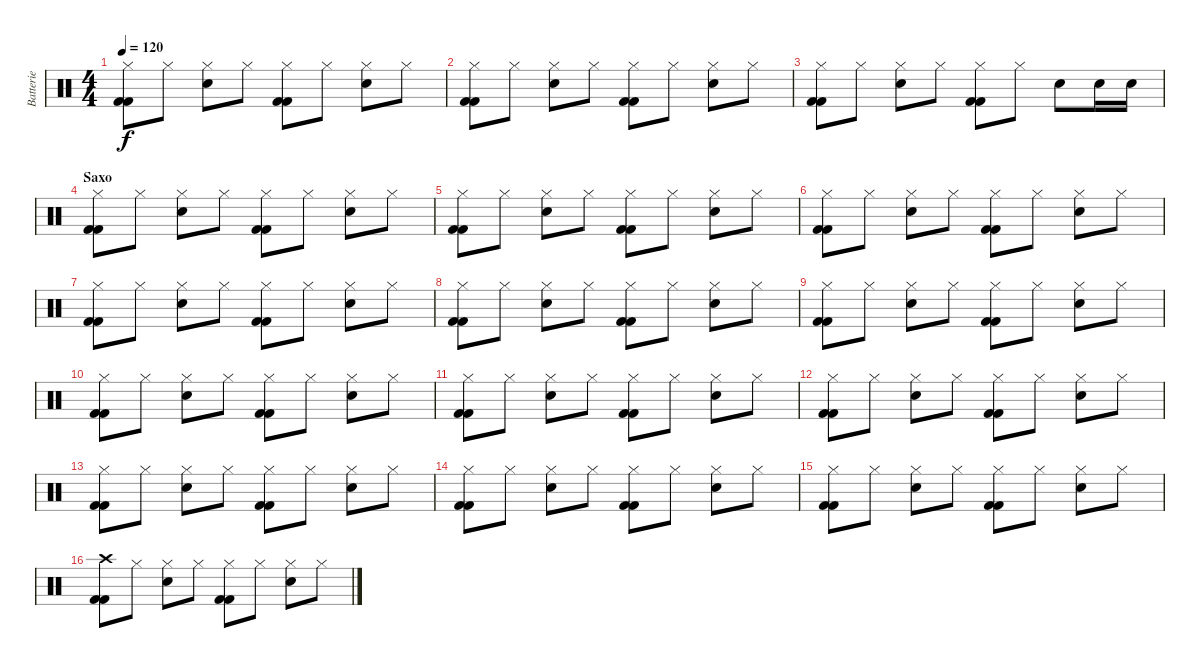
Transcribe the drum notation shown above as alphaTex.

\track ("Batterie" "Batterie") {instrument percussion}
\staff {score}
\articulation defaults
\ts (4 4)
\tempo 120
\clef neutral
\ks c
("Hi-Hat (closed)" "Kick (hit) 2" "Kick (hit) 2").8{dy f} "Hi-Hat (closed)".8 ("Hi-Hat (closed)" "Snare (hit) 2").8 "Hi-Hat (closed)".8 ("Hi-Hat (closed)" "Kick (hit) 2" "Kick (hit) 2").8 "Hi-Hat (closed)".8 ("Hi-Hat (closed)" "Snare (hit) 2").8 "Hi-Hat (closed)".8 |
("Hi-Hat (closed)" "Kick (hit) 2" "Kick (hit) 2").8 "Hi-Hat (closed)".8 ("Hi-Hat (closed)" "Snare (hit) 2").8 "Hi-Hat (closed)".8 ("Hi-Hat (closed)" "Kick (hit) 2" "Kick (hit) 2").8 "Hi-Hat (closed)".8 ("Hi-Hat (closed)" "Snare (hit) 2").8 "Hi-Hat (closed)".8 |
("Hi-Hat (closed)" "Kick (hit) 2" "Kick (hit) 2").8 "Hi-Hat (closed)".8 ("Hi-Hat (closed)" "Snare (hit) 2").8 "Hi-Hat (closed)".8 ("Hi-Hat (closed)" "Kick (hit) 2" "Kick (hit) 2").8 "Hi-Hat (closed)".8 "Snare (hit) 2".8 "Snare (hit) 2".16 "Snare (hit) 2".16 |
\section ("" "Saxo")
("Hi-Hat (closed)" "Kick (hit) 2" "Kick (hit) 2").8 "Hi-Hat (closed)".8 ("Hi-Hat (closed)" "Snare (hit) 2").8 "Hi-Hat (closed)".8 ("Hi-Hat (closed)" "Kick (hit) 2" "Kick (hit) 2").8 "Hi-Hat (closed)".8 ("Hi-Hat (closed)" "Snare (hit) 2").8 "Hi-Hat (closed)".8 |
("Hi-Hat (closed)" "Kick (hit) 2" "Kick (hit) 2").8 "Hi-Hat (closed)".8 ("Hi-Hat (closed)" "Snare (hit) 2").8 "Hi-Hat (closed)".8 ("Hi-Hat (closed)" "Kick (hit) 2" "Kick (hit) 2").8 "Hi-Hat (closed)".8 ("Hi-Hat (closed)" "Snare (hit) 2").8 "Hi-Hat (closed)".8 |
("Hi-Hat (closed)" "Kick (hit) 2" "Kick (hit) 2").8 "Hi-Hat (closed)".8 ("Hi-Hat (closed)" "Snare (hit) 2").8 "Hi-Hat (closed)".8 ("Hi-Hat (closed)" "Kick (hit) 2" "Kick (hit) 2").8 "Hi-Hat (closed)".8 ("Hi-Hat (closed)" "Snare (hit) 2").8 "Hi-Hat (closed)".8 |
("Hi-Hat (closed)" "Kick (hit) 2" "Kick (hit) 2").8 "Hi-Hat (closed)".8 ("Hi-Hat (closed)" "Snare (hit) 2").8 "Hi-Hat (closed)".8 ("Hi-Hat (closed)" "Kick (hit) 2" "Kick (hit) 2").8 "Hi-Hat (closed)".8 ("Hi-Hat (closed)" "Snare (hit) 2").8 "Hi-Hat (closed)".8 |
("Hi-Hat (closed)" "Kick (hit) 2" "Kick (hit) 2").8 "Hi-Hat (closed)".8 ("Hi-Hat (closed)" "Snare (hit) 2").8 "Hi-Hat (closed)".8 ("Hi-Hat (closed)" "Kick (hit) 2" "Kick (hit) 2").8 "Hi-Hat (closed)".8 ("Hi-Hat (closed)" "Snare (hit) 2").8 "Hi-Hat (closed)".8 |
("Hi-Hat (closed)" "Kick (hit) 2" "Kick (hit) 2").8 "Hi-Hat (closed)".8 ("Hi-Hat (closed)" "Snare (hit) 2").8 "Hi-Hat (closed)".8 ("Hi-Hat (closed)" "Kick (hit) 2" "Kick (hit) 2").8 "Hi-Hat (closed)".8 ("Hi-Hat (closed)" "Snare (hit) 2").8 "Hi-Hat (closed)".8 |
("Hi-Hat (closed)" "Kick (hit) 2" "Kick (hit) 2").8 "Hi-Hat (closed)".8 ("Hi-Hat (closed)" "Snare (hit) 2").8 "Hi-Hat (closed)".8 ("Hi-Hat (closed)" "Kick (hit) 2" "Kick (hit) 2").8 "Hi-Hat (closed)".8 ("Hi-Hat (closed)" "Snare (hit) 2").8 "Hi-Hat (closed)".8 |
("Hi-Hat (closed)" "Kick (hit) 2" "Kick (hit) 2").8 "Hi-Hat (closed)".8 ("Hi-Hat (closed)" "Snare (hit) 2").8 "Hi-Hat (closed)".8 ("Hi-Hat (closed)" "Kick (hit) 2" "Kick (hit) 2").8 "Hi-Hat (closed)".8 ("Hi-Hat (closed)" "Snare (hit) 2").8 "Hi-Hat (closed)".8 |
("Hi-Hat (closed)" "Kick (hit) 2" "Kick (hit) 2").8 "Hi-Hat (closed)".8 ("Hi-Hat (closed)" "Snare (hit) 2").8 "Hi-Hat (closed)".8 ("Hi-Hat (closed)" "Kick (hit) 2" "Kick (hit) 2").8 "Hi-Hat (closed)".8 ("Hi-Hat (closed)" "Snare (hit) 2").8 "Hi-Hat (closed)".8 |
("Hi-Hat (closed)" "Kick (hit) 2" "Kick (hit) 2").8 "Hi-Hat (closed)".8 ("Hi-Hat (closed)" "Snare (hit) 2").8 "Hi-Hat (closed)".8 ("Hi-Hat (closed)" "Kick (hit) 2" "Kick (hit) 2").8 "Hi-Hat (closed)".8 ("Hi-Hat (closed)" "Snare (hit) 2").8 "Hi-Hat (closed)".8 |
("Hi-Hat (closed)" "Kick (hit) 2" "Kick (hit) 2").8 "Hi-Hat (closed)".8 ("Hi-Hat (closed)" "Snare (hit) 2").8 "Hi-Hat (closed)".8 ("Hi-Hat (closed)" "Kick (hit) 2" "Kick (hit) 2").8 "Hi-Hat (closed)".8 ("Hi-Hat (closed)" "Snare (hit) 2").8 "Hi-Hat (closed)".8 |
("Hi-Hat (closed)" "Kick (hit) 2" "Kick (hit) 2").8 "Hi-Hat (closed)".8 ("Hi-Hat (closed)" "Snare (hit) 2").8 "Hi-Hat (closed)".8 ("Hi-Hat (closed)" "Kick (hit) 2" "Kick (hit) 2").8 "Hi-Hat (closed)".8 ("Hi-Hat (closed)" "Snare (hit) 2").8 "Hi-Hat (closed)".8 |
("Crash high (hit)" "Kick (hit) 2" "Kick (hit) 2").8 "Hi-Hat (closed)".8 ("Hi-Hat (closed)" "Snare (hit) 2").8 "Hi-Hat (closed)".8 ("Hi-Hat (closed)" "Kick (hit) 2" "Kick (hit) 2").8 "Hi-Hat (closed)".8 ("Hi-Hat (closed)" "Snare (hit) 2").8 "Hi-Hat (closed)".8
